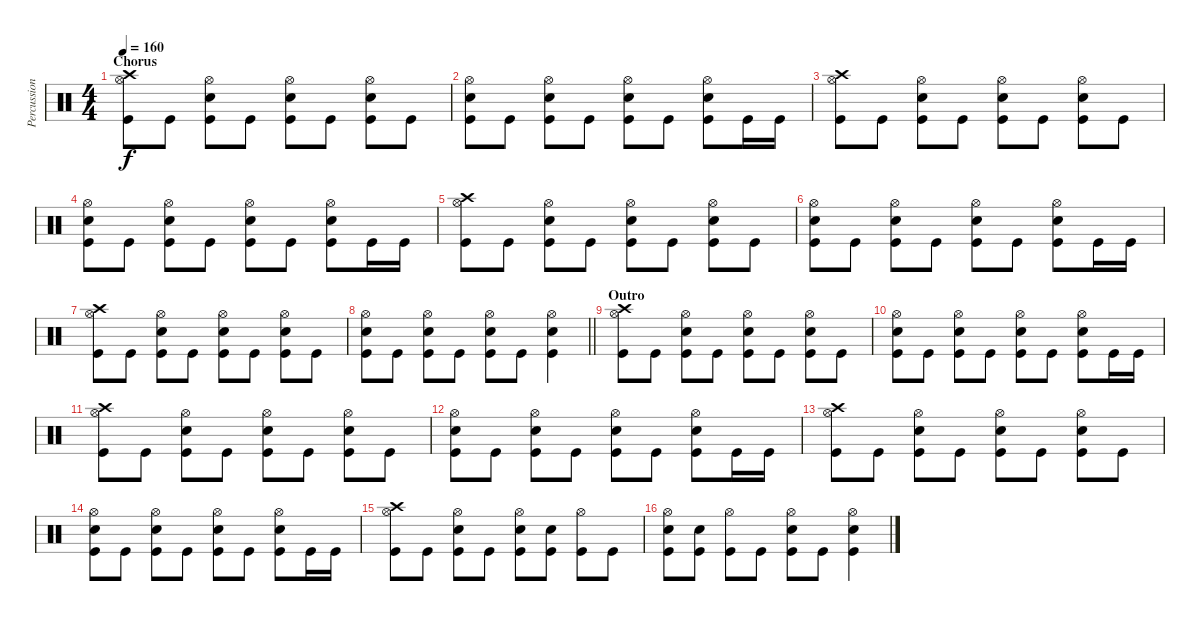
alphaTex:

\track ("Percussion" "Percussion") {instrument percussion}
\staff {score}
\articulation defaults
\ts (4 4)
\section ("" "Chorus")
\tempo 160
\clef neutral
\ks c
("Crash high (hit)" "Hi-Hat (open)" "Kick (hit)").8{dy f} "Kick (hit)".8 ("Hi-Hat (open)" "Electric Snare (hit)" "Kick (hit)").8 "Kick (hit)".8 ("Hi-Hat (open)" "Electric Snare (hit)" "Kick (hit)").8 "Kick (hit)".8 ("Hi-Hat (open)" "Electric Snare (hit)" "Kick (hit)").8 "Kick (hit)".8 |
("Hi-Hat (open)" "Electric Snare (hit)" "Kick (hit)").8 "Kick (hit)".8 ("Hi-Hat (open)" "Electric Snare (hit)" "Kick (hit)").8 "Kick (hit)".8 ("Hi-Hat (open)" "Electric Snare (hit)" "Kick (hit)").8 "Kick (hit)".8 ("Hi-Hat (open)" "Electric Snare (hit)" "Kick (hit)").8 "Kick (hit)".16 "Kick (hit)".16 |
("Crash high (hit)" "Hi-Hat (open)" "Kick (hit)").8 "Kick (hit)".8 ("Hi-Hat (open)" "Electric Snare (hit)" "Kick (hit)").8 "Kick (hit)".8 ("Hi-Hat (open)" "Electric Snare (hit)" "Kick (hit)").8 "Kick (hit)".8 ("Hi-Hat (open)" "Electric Snare (hit)" "Kick (hit)").8 "Kick (hit)".8 |
("Hi-Hat (open)" "Electric Snare (hit)" "Kick (hit)").8 "Kick (hit)".8 ("Hi-Hat (open)" "Electric Snare (hit)" "Kick (hit)").8 "Kick (hit)".8 ("Hi-Hat (open)" "Electric Snare (hit)" "Kick (hit)").8 "Kick (hit)".8 ("Hi-Hat (open)" "Electric Snare (hit)" "Kick (hit)").8 "Kick (hit)".16 "Kick (hit)".16 |
("Crash high (hit)" "Hi-Hat (open)" "Kick (hit)").8 "Kick (hit)".8 ("Hi-Hat (open)" "Electric Snare (hit)" "Kick (hit)").8 "Kick (hit)".8 ("Hi-Hat (open)" "Electric Snare (hit)" "Kick (hit)").8 "Kick (hit)".8 ("Hi-Hat (open)" "Electric Snare (hit)" "Kick (hit)").8 "Kick (hit)".8 |
("Hi-Hat (open)" "Electric Snare (hit)" "Kick (hit)").8 "Kick (hit)".8 ("Hi-Hat (open)" "Electric Snare (hit)" "Kick (hit)").8 "Kick (hit)".8 ("Hi-Hat (open)" "Electric Snare (hit)" "Kick (hit)").8 "Kick (hit)".8 ("Hi-Hat (open)" "Electric Snare (hit)" "Kick (hit)").8 "Kick (hit)".16 "Kick (hit)".16 |
("Crash high (hit)" "Hi-Hat (open)" "Kick (hit)").8 "Kick (hit)".8 ("Hi-Hat (open)" "Electric Snare (hit)" "Kick (hit)").8 "Kick (hit)".8 ("Hi-Hat (open)" "Electric Snare (hit)" "Kick (hit)").8 "Kick (hit)".8 ("Hi-Hat (open)" "Electric Snare (hit)" "Kick (hit)").8 "Kick (hit)".8 |
\barLineRight lightlight
("Hi-Hat (open)" "Electric Snare (hit)" "Kick (hit)").8 "Kick (hit)".8 ("Hi-Hat (open)" "Electric Snare (hit)" "Kick (hit)").8 "Kick (hit)".8 ("Hi-Hat (open)" "Electric Snare (hit)" "Kick (hit)").8 "Kick (hit)".8 ("Hi-Hat (open)" "Electric Snare (hit)" "Kick (hit)").4 |
\section ("" "Outro")
("Crash high (hit)" "Hi-Hat (open)" "Kick (hit)").8 "Kick (hit)".8 ("Hi-Hat (open)" "Electric Snare (hit)" "Kick (hit)").8 "Kick (hit)".8 ("Hi-Hat (open)" "Electric Snare (hit)" "Kick (hit)").8 "Kick (hit)".8 ("Hi-Hat (open)" "Electric Snare (hit)" "Kick (hit)").8 "Kick (hit)".8 |
("Hi-Hat (open)" "Electric Snare (hit)" "Kick (hit)").8 "Kick (hit)".8 ("Hi-Hat (open)" "Electric Snare (hit)" "Kick (hit)").8 "Kick (hit)".8 ("Hi-Hat (open)" "Electric Snare (hit)" "Kick (hit)").8 "Kick (hit)".8 ("Hi-Hat (open)" "Electric Snare (hit)" "Kick (hit)").8 "Kick (hit)".16 "Kick (hit)".16 |
("Crash high (hit)" "Hi-Hat (open)" "Kick (hit)").8 "Kick (hit)".8 ("Hi-Hat (open)" "Electric Snare (hit)" "Kick (hit)").8 "Kick (hit)".8 ("Hi-Hat (open)" "Electric Snare (hit)" "Kick (hit)").8 "Kick (hit)".8 ("Hi-Hat (open)" "Electric Snare (hit)" "Kick (hit)").8 "Kick (hit)".8 |
("Hi-Hat (open)" "Electric Snare (hit)" "Kick (hit)").8 "Kick (hit)".8 ("Hi-Hat (open)" "Electric Snare (hit)" "Kick (hit)").8 "Kick (hit)".8 ("Hi-Hat (open)" "Electric Snare (hit)" "Kick (hit)").8 "Kick (hit)".8 ("Hi-Hat (open)" "Electric Snare (hit)" "Kick (hit)").8 "Kick (hit)".16 "Kick (hit)".16 |
("Crash high (hit)" "Hi-Hat (open)" "Kick (hit)").8 "Kick (hit)".8 ("Hi-Hat (open)" "Electric Snare (hit)" "Kick (hit)").8 "Kick (hit)".8 ("Hi-Hat (open)" "Electric Snare (hit)" "Kick (hit)").8 "Kick (hit)".8 ("Hi-Hat (open)" "Electric Snare (hit)" "Kick (hit)").8 "Kick (hit)".8 |
("Hi-Hat (open)" "Electric Snare (hit)" "Kick (hit)").8 "Kick (hit)".8 ("Hi-Hat (open)" "Electric Snare (hit)" "Kick (hit)").8 "Kick (hit)".8 ("Hi-Hat (open)" "Electric Snare (hit)" "Kick (hit)").8 "Kick (hit)".8 ("Hi-Hat (open)" "Electric Snare (hit)" "Kick (hit)").8 "Kick (hit)".16 "Kick (hit)".16 |
("Crash high (hit)" "Hi-Hat (open)" "Kick (hit)").8 "Kick (hit)".8 ("Hi-Hat (open)" "Electric Snare (hit)" "Kick (hit)").8 "Kick (hit)".8 ("Hi-Hat (open)" "Electric Snare (hit)" "Kick (hit)").8 ("Electric Snare (hit)" "Kick (hit)").8 ("Hi-Hat (open)" "Kick (hit)").8 "Kick (hit)".8 |
("Hi-Hat (open)" "Electric Snare (hit)" "Kick (hit)").8 ("Electric Snare (hit)" "Kick (hit)").8 ("Hi-Hat (open)" "Kick (hit)").8 "Kick (hit)".8 ("Hi-Hat (open)" "Electric Snare (hit)" "Kick (hit)").8 "Kick (hit)".8 ("Hi-Hat (open)" "Electric Snare (hit)" "Kick (hit)").4
